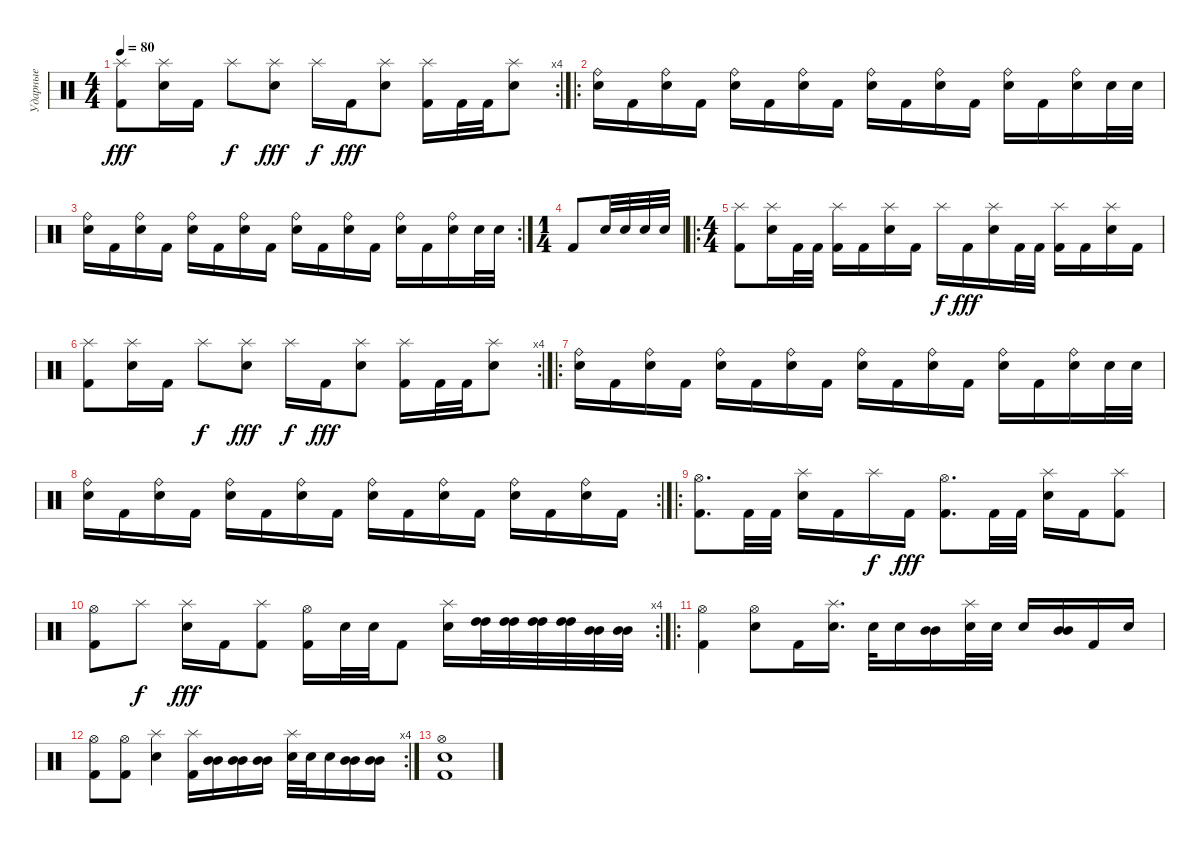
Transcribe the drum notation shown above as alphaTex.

\track ("Ударные" "Ударные") {instrument percussion}
\staff {score}
\articulation defaults
\rc 4
\ts (4 4)
\tempo 80
\clef neutral
\ks c
("Splash (hit)" "Kick (hit) 2").8{dy fff} ("Splash (hit)" "Electric Snare (hit)").16 "Kick (hit) 2".16 "Splash (hit)".8{dy f} ("Splash (hit)" "Electric Snare (hit)").8{dy fff} "Splash (hit)".16{dy f} "Kick (hit) 2".16{dy fff} ("Splash (hit)" "Electric Snare (hit)").8 ("Splash (hit)" "Kick (hit) 2").16 "Kick (hit) 2".32 "Kick (hit) 2".32 ("Splash (hit)" "Electric Snare (hit)").8 |
\ro
("Ride (bell)" "Electric Snare (hit)").16 "Kick (hit) 2".16 ("Ride (bell)" "Electric Snare (hit)").16 "Kick (hit) 2".16 ("Ride (bell)" "Electric Snare (hit)").16 "Kick (hit) 2".16 ("Ride (bell)" "Electric Snare (hit)").16 "Kick (hit) 2".16 ("Ride (bell)" "Electric Snare (hit)").16 "Kick (hit) 2".16 ("Ride (bell)" "Electric Snare (hit)").16 "Kick (hit) 2".16 ("Ride (bell)" "Electric Snare (hit)").16 "Kick (hit) 2".16 ("Ride (bell)" "Electric Snare (hit)").16 "Electric Snare (hit)".32 "Electric Snare (hit)".32 |
\rc 2
("Ride (bell)" "Electric Snare (hit)").16 "Kick (hit) 2".16 ("Ride (bell)" "Electric Snare (hit)").16 "Kick (hit) 2".16 ("Ride (bell)" "Electric Snare (hit)").16 "Kick (hit) 2".16 ("Ride (bell)" "Electric Snare (hit)").16 "Kick (hit) 2".16 ("Ride (bell)" "Electric Snare (hit)").16 "Kick (hit) 2".16 ("Ride (bell)" "Electric Snare (hit)").16 "Kick (hit) 2".16 ("Ride (bell)" "Electric Snare (hit)").16 "Kick (hit) 2".16 ("Ride (bell)" "Electric Snare (hit)").16 "Electric Snare (hit)".32 "Electric Snare (hit)".32 |
\ts (1 4)
"Kick (hit) 2".8 "Electric Snare (hit)".32 "Electric Snare (hit)".32 "Electric Snare (hit)".32 "Electric Snare (hit)".32 |
\ro
\ts (4 4)
("Splash (hit)" "Kick (hit) 2").8 ("Splash (hit)" "Electric Snare (hit)").16 "Kick (hit) 2".32 "Kick (hit) 2".32 ("Splash (hit)" "Kick (hit) 2").16 "Kick (hit) 2".16 ("Splash (hit)" "Electric Snare (hit)").16 "Kick (hit) 2".16 "Splash (hit)".16{dy f} "Kick (hit) 2".16{dy fff} ("Splash (hit)" "Electric Snare (hit)").16 "Kick (hit) 2".32 "Kick (hit) 2".32 ("Splash (hit)" "Kick (hit) 2").16 "Kick (hit) 2".16 ("Splash (hit)" "Electric Snare (hit)").16 "Kick (hit) 2".16 |
\rc 4
("Splash (hit)" "Kick (hit) 2").8 ("Splash (hit)" "Electric Snare (hit)").16 "Kick (hit) 2".16 "Splash (hit)".8{dy f} ("Splash (hit)" "Electric Snare (hit)").8{dy fff} "Splash (hit)".16{dy f} "Kick (hit) 2".16{dy fff} ("Splash (hit)" "Electric Snare (hit)").8 ("Splash (hit)" "Kick (hit) 2").16 "Kick (hit) 2".32 "Kick (hit) 2".32 ("Splash (hit)" "Electric Snare (hit)").8 |
\ro
("Ride (bell)" "Electric Snare (hit)").16 "Kick (hit) 2".16 ("Ride (bell)" "Electric Snare (hit)").16 "Kick (hit) 2".16 ("Ride (bell)" "Electric Snare (hit)").16 "Kick (hit) 2".16 ("Ride (bell)" "Electric Snare (hit)").16 "Kick (hit) 2".16 ("Ride (bell)" "Electric Snare (hit)").16 "Kick (hit) 2".16 ("Ride (bell)" "Electric Snare (hit)").16 "Kick (hit) 2".16 ("Ride (bell)" "Electric Snare (hit)").16 "Kick (hit) 2".16 ("Ride (bell)" "Electric Snare (hit)").16 "Electric Snare (hit)".32 "Electric Snare (hit)".32 |
\rc 2
("Ride (bell)" "Electric Snare (hit)").16 "Kick (hit) 2".16 ("Ride (bell)" "Electric Snare (hit)").16 "Kick (hit) 2".16 ("Ride (bell)" "Electric Snare (hit)").16 "Kick (hit) 2".16 ("Ride (bell)" "Electric Snare (hit)").16 "Kick (hit) 2".16 ("Ride (bell)" "Electric Snare (hit)").16 "Kick (hit) 2".16 ("Ride (bell)" "Electric Snare (hit)").16 "Kick (hit) 2".16 ("Ride (bell)" "Electric Snare (hit)").16 "Kick (hit) 2".16 ("Ride (bell)" "Electric Snare (hit)").16 "Kick (hit) 2".16 |
\ro
("Hi-Hat (open)" "Kick (hit) 2").8{d} "Kick (hit) 2".32 "Kick (hit) 2".32 ("Splash (hit)" "Electric Snare (hit)").16 "Kick (hit) 2".16 "Splash (hit)".16{dy f} "Kick (hit) 2".16{dy fff} ("Hi-Hat (open)" "Kick (hit) 2").8{d} "Kick (hit) 2".32 "Kick (hit) 2".32 ("Splash (hit)" "Electric Snare (hit)").16 "Kick (hit) 2".16 ("Splash (hit)" "Kick (hit) 2").8 |
\rc 4
("Hi-Hat (open)" "Kick (hit) 2").8 "Splash (hit)".8{dy f} ("Splash (hit)" "Electric Snare (hit)").16{dy fff} "Kick (hit) 2".16 ("Splash (hit)" "Kick (hit) 2").8 ("Hi-Hat (open)" "Kick (hit) 2").16 "Electric Snare (hit)".32 "Electric Snare (hit)".32 "Kick (hit) 2".8 ("Splash (hit)" "Electric Snare (hit)").16 ("High Tom (hit)" "High Tom (hit)").32 ("High Tom (hit)" "High Tom (hit)").32 ("High Tom (hit)" "High Tom (hit)").32 ("High Tom (hit)" "High Tom (hit)").32 ("Mid Tom (hit)" "Mid Tom (hit)").32 ("Mid Tom (hit)" "Mid Tom (hit)").32 |
\ro
("Hi-Hat (open)" "Kick (hit) 2").4 ("Hi-Hat (open)" "Electric Snare (hit)").8 "Kick (hit) 2".16 ("Splash (hit)" "Electric Snare (hit)").16{d} "Electric Snare (hit)".32 "Electric Snare (hit)".16 ("Mid Tom (hit)" "Mid Tom (hit)").16 ("Splash (hit)" "Electric Snare (hit)").32 "Electric Snare (hit)".32 "Electric Snare (hit)".16 ("Mid Tom (hit)" "Mid Tom (hit)").16 "Kick (hit) 2".16 "Electric Snare (hit)".16 |
\rc 4
("Hi-Hat (open)" "Kick (hit) 2").8 ("Hi-Hat (open)" "Kick (hit) 2").8 ("Splash (hit)" "Electric Snare (hit)").4 ("Splash (hit)" "Kick (hit) 2").16 ("Mid Tom (hit)" "Mid Tom (hit)").16 ("Mid Tom (hit)" "Mid Tom (hit)").16 ("Mid Tom (hit)" "Mid Tom (hit)").16 ("Splash (hit)" "Electric Snare (hit)").32 "Electric Snare (hit)".32 "Electric Snare (hit)".16 ("Mid Tom (hit)" "Mid Tom (hit)").16 ("Mid Tom (hit)" "Mid Tom (hit)").16 |
("Hi-Hat (open)" "Electric Snare (hit)" "Kick (hit) 2").1
